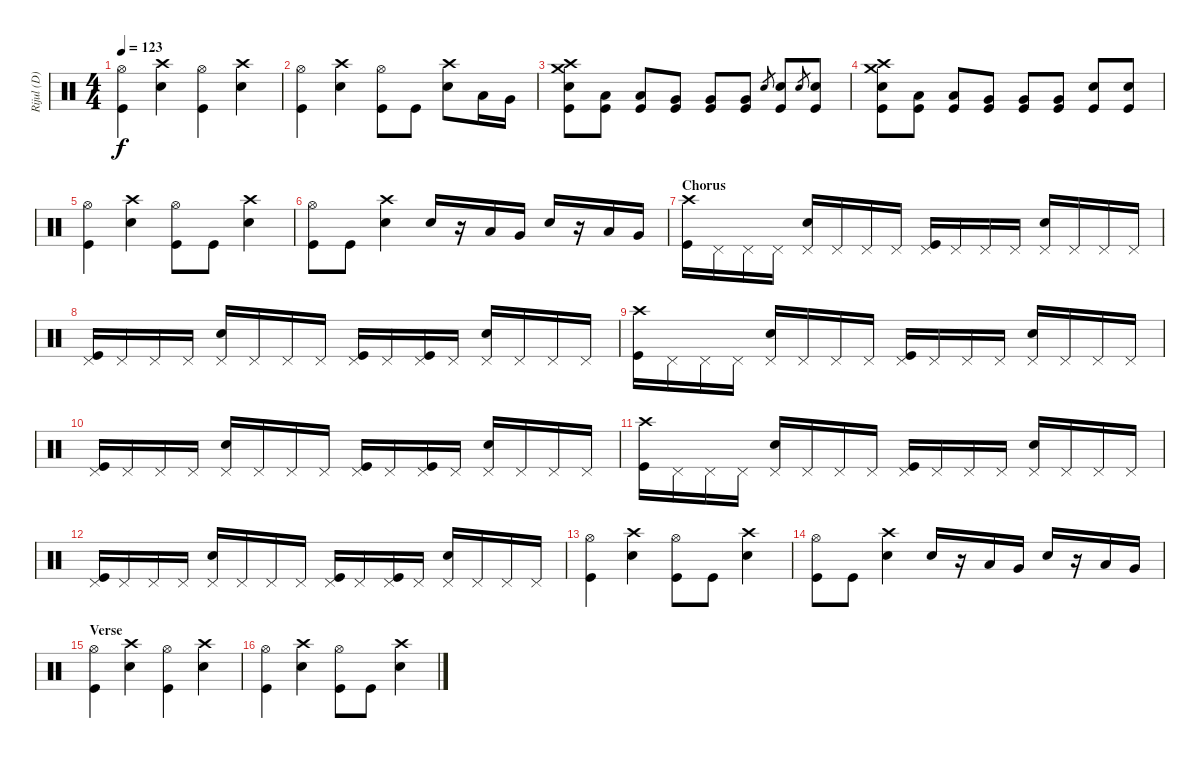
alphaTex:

\track ("Rijul (D)" "Rijul (D)") {instrument percussion}
\staff {score}
\articulation defaults
\ts (4 4)
\tempo 123
\clef neutral
\ks c
("Hi-Hat (open)" "Kick (hit)").4{dy f} ("Crash high (hit)" "Snare (hit) 2").4 ("Hi-Hat (open)" "Kick (hit)").4 ("Crash high (hit)" "Snare (hit) 2").4 |
("Hi-Hat (open)" "Kick (hit)").4 ("Crash high (hit)" "Snare (hit) 2").4 ("Hi-Hat (open)" "Kick (hit)").8 "Kick (hit)".8 ("Crash high (hit)" "Snare (hit) 2").8 "Low Tom (hit)".16 "Very Low Tom (hit)".16 |
("Crash high (hit)" "Crash medium (hit)" "Snare (hit) 2" "Kick (hit)").8 ("Low Tom (hit)" "Kick (hit)").8 ("Low Tom (hit)" "Kick (hit)").8 ("Very Low Tom (hit)" "Kick (hit)").8 ("Very Low Tom (hit)" "Kick (hit)").8 ("Very Low Tom (hit)" "Kick (hit)").8 "Snare (hit) 2".8{gr} ("Snare (hit) 2" "Kick (hit)").8 "Snare (hit) 2".8{gr} ("Snare (hit) 2" "Kick (hit)").8 |
("Crash high (hit)" "Crash medium (hit)" "Snare (hit) 2" "Kick (hit)").8 ("Low Tom (hit)" "Kick (hit)").8 ("Low Tom (hit)" "Kick (hit)").8 ("Very Low Tom (hit)" "Kick (hit)").8 ("Very Low Tom (hit)" "Kick (hit)").8 ("Very Low Tom (hit)" "Kick (hit)").8 ("Snare (hit) 2" "Kick (hit)").8 ("Snare (hit) 2" "Kick (hit)").8 |
("Hi-Hat (open)" "Kick (hit)").4 ("Crash high (hit)" "Snare (hit) 2").4 ("Hi-Hat (open)" "Kick (hit)").8 "Kick (hit)".8 ("Crash high (hit)" "Snare (hit) 2").4 |
("Hi-Hat (open)" "Kick (hit)").8 "Kick (hit)".8 ("Crash high (hit)" "Snare (hit) 2").4 "Snare (hit) 2".16 r.16 "Low Tom (hit)".16 "Very Low Tom (hit)".16 "Snare (hit) 2".16 r.16 "Low Tom (hit)".16 "Very Low Tom (hit)".16 |
\section ("" "Chorus")
("Crash high (hit)" "Kick (hit)").16 "Pedal Hi-Hat (hit)".16 "Pedal Hi-Hat (hit)".16 "Pedal Hi-Hat (hit)".16 ("Pedal Hi-Hat (hit)" "Snare (hit) 2").16 "Pedal Hi-Hat (hit)".16 "Pedal Hi-Hat (hit)".16 "Pedal Hi-Hat (hit)".16 ("Pedal Hi-Hat (hit)" "Kick (hit)").16 "Pedal Hi-Hat (hit)".16 "Pedal Hi-Hat (hit)".16 "Pedal Hi-Hat (hit)".16 ("Pedal Hi-Hat (hit)" "Snare (hit) 2").16 "Pedal Hi-Hat (hit)".16 "Pedal Hi-Hat (hit)".16 "Pedal Hi-Hat (hit)".16 |
("Pedal Hi-Hat (hit)" "Kick (hit)").16 "Pedal Hi-Hat (hit)".16 "Pedal Hi-Hat (hit)".16 "Pedal Hi-Hat (hit)".16 ("Pedal Hi-Hat (hit)" "Snare (hit) 2").16 "Pedal Hi-Hat (hit)".16 "Pedal Hi-Hat (hit)".16 "Pedal Hi-Hat (hit)".16 ("Pedal Hi-Hat (hit)" "Kick (hit)").16 "Pedal Hi-Hat (hit)".16 ("Pedal Hi-Hat (hit)" "Kick (hit)").16 "Pedal Hi-Hat (hit)".16 ("Pedal Hi-Hat (hit)" "Snare (hit) 2").16 "Pedal Hi-Hat (hit)".16 "Pedal Hi-Hat (hit)".16 "Pedal Hi-Hat (hit)".16 |
("Crash high (hit)" "Kick (hit)").16 "Pedal Hi-Hat (hit)".16 "Pedal Hi-Hat (hit)".16 "Pedal Hi-Hat (hit)".16 ("Pedal Hi-Hat (hit)" "Snare (hit) 2").16 "Pedal Hi-Hat (hit)".16 "Pedal Hi-Hat (hit)".16 "Pedal Hi-Hat (hit)".16 ("Pedal Hi-Hat (hit)" "Kick (hit)").16 "Pedal Hi-Hat (hit)".16 "Pedal Hi-Hat (hit)".16 "Pedal Hi-Hat (hit)".16 ("Pedal Hi-Hat (hit)" "Snare (hit) 2").16 "Pedal Hi-Hat (hit)".16 "Pedal Hi-Hat (hit)".16 "Pedal Hi-Hat (hit)".16 |
("Pedal Hi-Hat (hit)" "Kick (hit)").16 "Pedal Hi-Hat (hit)".16 "Pedal Hi-Hat (hit)".16 "Pedal Hi-Hat (hit)".16 ("Pedal Hi-Hat (hit)" "Snare (hit) 2").16 "Pedal Hi-Hat (hit)".16 "Pedal Hi-Hat (hit)".16 "Pedal Hi-Hat (hit)".16 ("Pedal Hi-Hat (hit)" "Kick (hit)").16 "Pedal Hi-Hat (hit)".16 ("Pedal Hi-Hat (hit)" "Kick (hit)").16 "Pedal Hi-Hat (hit)".16 ("Pedal Hi-Hat (hit)" "Snare (hit) 2").16 "Pedal Hi-Hat (hit)".16 "Pedal Hi-Hat (hit)".16 "Pedal Hi-Hat (hit)".16 |
("Crash high (hit)" "Kick (hit)").16 "Pedal Hi-Hat (hit)".16 "Pedal Hi-Hat (hit)".16 "Pedal Hi-Hat (hit)".16 ("Pedal Hi-Hat (hit)" "Snare (hit) 2").16 "Pedal Hi-Hat (hit)".16 "Pedal Hi-Hat (hit)".16 "Pedal Hi-Hat (hit)".16 ("Pedal Hi-Hat (hit)" "Kick (hit)").16 "Pedal Hi-Hat (hit)".16 "Pedal Hi-Hat (hit)".16 "Pedal Hi-Hat (hit)".16 ("Pedal Hi-Hat (hit)" "Snare (hit) 2").16 "Pedal Hi-Hat (hit)".16 "Pedal Hi-Hat (hit)".16 "Pedal Hi-Hat (hit)".16 |
("Pedal Hi-Hat (hit)" "Kick (hit)").16 "Pedal Hi-Hat (hit)".16 "Pedal Hi-Hat (hit)".16 "Pedal Hi-Hat (hit)".16 ("Pedal Hi-Hat (hit)" "Snare (hit) 2").16 "Pedal Hi-Hat (hit)".16 "Pedal Hi-Hat (hit)".16 "Pedal Hi-Hat (hit)".16 ("Pedal Hi-Hat (hit)" "Kick (hit)").16 "Pedal Hi-Hat (hit)".16 ("Pedal Hi-Hat (hit)" "Kick (hit)").16 "Pedal Hi-Hat (hit)".16 ("Pedal Hi-Hat (hit)" "Snare (hit) 2").16 "Pedal Hi-Hat (hit)".16 "Pedal Hi-Hat (hit)".16 "Pedal Hi-Hat (hit)".16 |
("Hi-Hat (open)" "Kick (hit)").4 ("Crash high (hit)" "Snare (hit) 2").4 ("Hi-Hat (open)" "Kick (hit)").8 "Kick (hit)".8 ("Crash high (hit)" "Snare (hit) 2").4 |
("Hi-Hat (open)" "Kick (hit)").8 "Kick (hit)".8 ("Crash high (hit)" "Snare (hit) 2").4 "Snare (hit) 2".16 r.16 "Low Tom (hit)".16 "Very Low Tom (hit)".16 "Snare (hit) 2".16 r.16 "Low Tom (hit)".16 "Very Low Tom (hit)".16 |
\section ("" "Verse")
("Hi-Hat (open)" "Kick (hit)").4 ("Crash high (hit)" "Snare (hit) 2").4 ("Hi-Hat (open)" "Kick (hit)").4 ("Crash high (hit)" "Snare (hit) 2").4 |
("Hi-Hat (open)" "Kick (hit)").4 ("Crash high (hit)" "Snare (hit) 2").4 ("Hi-Hat (open)" "Kick (hit)").8 "Kick (hit)".8 ("Crash high (hit)" "Snare (hit) 2").4
